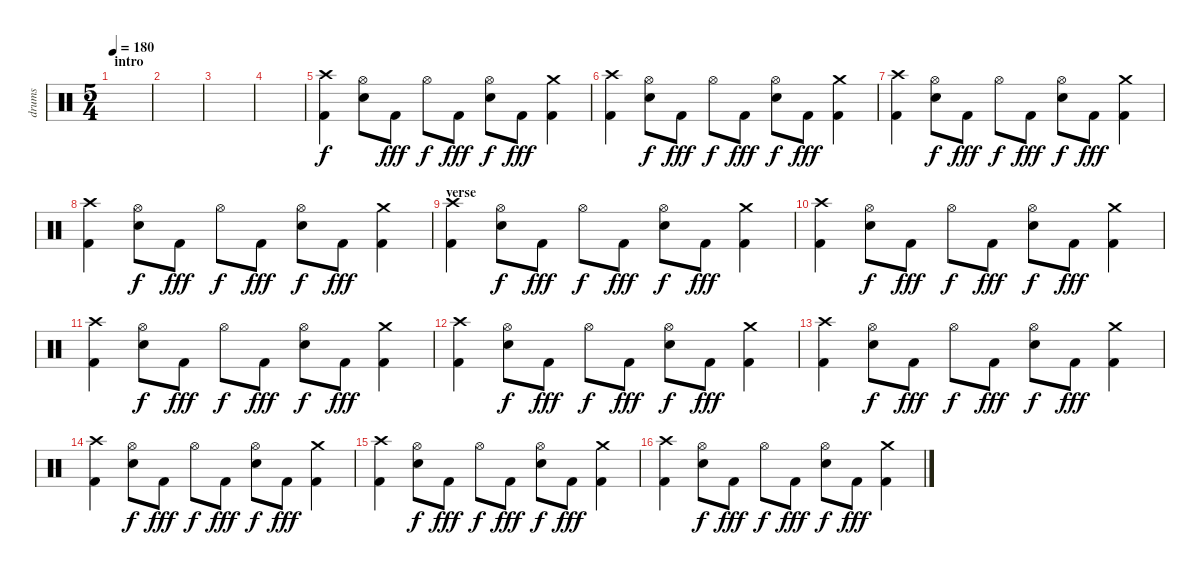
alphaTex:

\track ("drums" "drums") {instrument percussion}
\staff {score}
\articulation defaults
\ts (5 4)
\section ("" "intro")
\tempo 180
\clef neutral
\ks c
|
|
|
|
("Crash high (hit)" "Kick (hit) 2").4 ("Hi-Hat (open)" "Snare (hit) 2").8{dy f} "Kick (hit) 2".8{dy fff} "Hi-Hat (open)".8{dy f} "Kick (hit) 2".8{dy fff} ("Hi-Hat (open)" "Snare (hit) 2").8{dy f} "Kick (hit) 2".8{dy fff} ("Crash medium (hit)" "Kick (hit) 2").4 |
("Crash high (hit)" "Kick (hit) 2").4 ("Hi-Hat (open)" "Snare (hit) 2").8{dy f} "Kick (hit) 2".8{dy fff} "Hi-Hat (open)".8{dy f} "Kick (hit) 2".8{dy fff} ("Hi-Hat (open)" "Snare (hit) 2").8{dy f} "Kick (hit) 2".8{dy fff} ("Crash medium (hit)" "Kick (hit) 2").4 |
("Crash high (hit)" "Kick (hit) 2").4 ("Hi-Hat (open)" "Snare (hit) 2").8{dy f} "Kick (hit) 2".8{dy fff} "Hi-Hat (open)".8{dy f} "Kick (hit) 2".8{dy fff} ("Hi-Hat (open)" "Snare (hit) 2").8{dy f} "Kick (hit) 2".8{dy fff} ("Crash medium (hit)" "Kick (hit) 2").4 |
("Crash high (hit)" "Kick (hit) 2").4 ("Hi-Hat (open)" "Snare (hit) 2").8{dy f} "Kick (hit) 2".8{dy fff} "Hi-Hat (open)".8{dy f} "Kick (hit) 2".8{dy fff} ("Hi-Hat (open)" "Snare (hit) 2").8{dy f} "Kick (hit) 2".8{dy fff} ("Crash medium (hit)" "Kick (hit) 2").4 |
\section ("" "verse")
("Crash high (hit)" "Kick (hit) 2").4 ("Hi-Hat (open)" "Snare (hit) 2").8{dy f} "Kick (hit) 2".8{dy fff} "Hi-Hat (open)".8{dy f} "Kick (hit) 2".8{dy fff} ("Hi-Hat (open)" "Snare (hit) 2").8{dy f} "Kick (hit) 2".8{dy fff} ("Crash medium (hit)" "Kick (hit) 2").4 |
("Crash high (hit)" "Kick (hit) 2").4 ("Hi-Hat (open)" "Snare (hit) 2").8{dy f} "Kick (hit) 2".8{dy fff} "Hi-Hat (open)".8{dy f} "Kick (hit) 2".8{dy fff} ("Hi-Hat (open)" "Snare (hit) 2").8{dy f} "Kick (hit) 2".8{dy fff} ("Crash medium (hit)" "Kick (hit) 2").4 |
("Crash high (hit)" "Kick (hit) 2").4 ("Hi-Hat (open)" "Snare (hit) 2").8{dy f} "Kick (hit) 2".8{dy fff} "Hi-Hat (open)".8{dy f} "Kick (hit) 2".8{dy fff} ("Hi-Hat (open)" "Snare (hit) 2").8{dy f} "Kick (hit) 2".8{dy fff} ("Crash medium (hit)" "Kick (hit) 2").4 |
("Crash high (hit)" "Kick (hit) 2").4 ("Hi-Hat (open)" "Snare (hit) 2").8{dy f} "Kick (hit) 2".8{dy fff} "Hi-Hat (open)".8{dy f} "Kick (hit) 2".8{dy fff} ("Hi-Hat (open)" "Snare (hit) 2").8{dy f} "Kick (hit) 2".8{dy fff} ("Crash medium (hit)" "Kick (hit) 2").4 |
("Crash high (hit)" "Kick (hit) 2").4 ("Hi-Hat (open)" "Snare (hit) 2").8{dy f} "Kick (hit) 2".8{dy fff} "Hi-Hat (open)".8{dy f} "Kick (hit) 2".8{dy fff} ("Hi-Hat (open)" "Snare (hit) 2").8{dy f} "Kick (hit) 2".8{dy fff} ("Crash medium (hit)" "Kick (hit) 2").4 |
("Crash high (hit)" "Kick (hit) 2").4 ("Hi-Hat (open)" "Snare (hit) 2").8{dy f} "Kick (hit) 2".8{dy fff} "Hi-Hat (open)".8{dy f} "Kick (hit) 2".8{dy fff} ("Hi-Hat (open)" "Snare (hit) 2").8{dy f} "Kick (hit) 2".8{dy fff} ("Crash medium (hit)" "Kick (hit) 2").4 |
("Crash high (hit)" "Kick (hit) 2").4 ("Hi-Hat (open)" "Snare (hit) 2").8{dy f} "Kick (hit) 2".8{dy fff} "Hi-Hat (open)".8{dy f} "Kick (hit) 2".8{dy fff} ("Hi-Hat (open)" "Snare (hit) 2").8{dy f} "Kick (hit) 2".8{dy fff} ("Crash medium (hit)" "Kick (hit) 2").4 |
("Crash high (hit)" "Kick (hit) 2").4 ("Hi-Hat (open)" "Snare (hit) 2").8{dy f} "Kick (hit) 2".8{dy fff} "Hi-Hat (open)".8{dy f} "Kick (hit) 2".8{dy fff} ("Hi-Hat (open)" "Snare (hit) 2").8{dy f} "Kick (hit) 2".8{dy fff} ("Crash medium (hit)" "Kick (hit) 2").4
